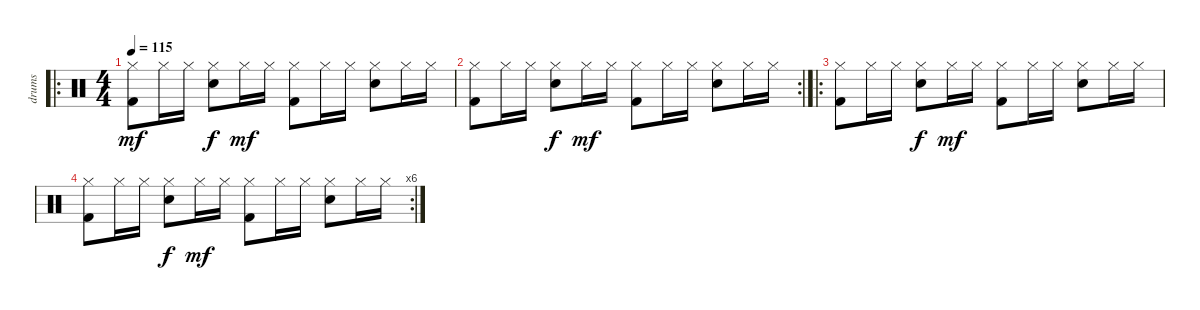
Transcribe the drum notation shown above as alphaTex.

\track ("drums" "drums") {instrument percussion}
\staff {score}
\articulation defaults
\ro
\ts (4 4)
\tempo 115
\clef neutral
\ks c
("Hi-Hat (closed)" "Kick (hit) 2").8{dy mf} "Hi-Hat (closed)".16 "Hi-Hat (closed)".16 ("Hi-Hat (closed)" "Snare (hit) 2").8{dy f} "Hi-Hat (closed)".16{dy mf} "Hi-Hat (closed)".16 ("Hi-Hat (closed)" "Kick (hit) 2").8 "Hi-Hat (closed)".16 "Hi-Hat (closed)".16 ("Hi-Hat (closed)" "Snare (hit) 2").8 "Hi-Hat (closed)".16 "Hi-Hat (closed)".16 |
\rc 2
("Hi-Hat (closed)" "Kick (hit) 2").8 "Hi-Hat (closed)".16 "Hi-Hat (closed)".16 ("Hi-Hat (closed)" "Snare (hit) 2").8{dy f} "Hi-Hat (closed)".16{dy mf} "Hi-Hat (closed)".16 ("Hi-Hat (closed)" "Kick (hit) 2").8 "Hi-Hat (closed)".16 "Hi-Hat (closed)".16 ("Hi-Hat (closed)" "Snare (hit) 2").8 "Hi-Hat (closed)".16 "Hi-Hat (closed)".16 |
\ro
("Hi-Hat (closed)" "Kick (hit) 2").8 "Hi-Hat (closed)".16 "Hi-Hat (closed)".16 ("Hi-Hat (closed)" "Snare (hit) 2").8{dy f} "Hi-Hat (closed)".16{dy mf} "Hi-Hat (closed)".16 ("Hi-Hat (closed)" "Kick (hit) 2").8 "Hi-Hat (closed)".16 "Hi-Hat (closed)".16 ("Hi-Hat (closed)" "Snare (hit) 2").8 "Hi-Hat (closed)".16 "Hi-Hat (closed)".16 |
\rc 6
("Hi-Hat (closed)" "Kick (hit) 2").8 "Hi-Hat (closed)".16 "Hi-Hat (closed)".16 ("Hi-Hat (closed)" "Snare (hit) 2").8{dy f} "Hi-Hat (closed)".16{dy mf} "Hi-Hat (closed)".16 ("Hi-Hat (closed)" "Kick (hit) 2").8 "Hi-Hat (closed)".16 "Hi-Hat (closed)".16 ("Hi-Hat (closed)" "Snare (hit) 2").8 "Hi-Hat (closed)".16 "Hi-Hat (closed)".16
